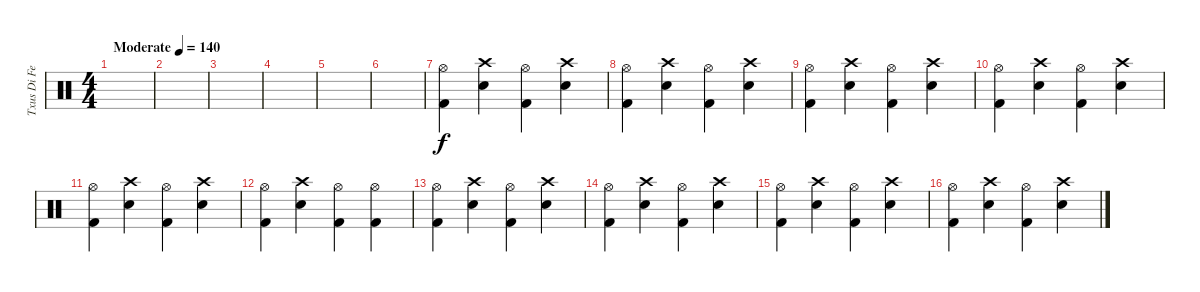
\track ("Txus Di Fellatio" "Txus Di Fe") {instrument percussion}
\staff {score}
\articulation defaults
\ts (4 4)
\tempo (140 "Moderate")
\clef neutral
\ks c
|
|
|
|
|
|
("Hi-Hat (open)" "Kick (hit) 2").4 ("Crash high (hit)" "Electric Snare (hit)").4 ("Hi-Hat (open)" "Kick (hit) 2").4 ("Crash high (hit)" "Electric Snare (hit)").4 |
("Hi-Hat (open)" "Kick (hit) 2").4 ("Crash high (hit)" "Electric Snare (hit)").4 ("Hi-Hat (open)" "Kick (hit) 2").4 ("Crash high (hit)" "Electric Snare (hit)").4 |
("Hi-Hat (open)" "Kick (hit) 2").4 ("Crash high (hit)" "Electric Snare (hit)").4 ("Hi-Hat (open)" "Kick (hit) 2").4 ("Crash high (hit)" "Electric Snare (hit)").4 |
("Hi-Hat (open)" "Kick (hit) 2").4 ("Crash high (hit)" "Electric Snare (hit)").4 ("Hi-Hat (open)" "Kick (hit) 2").4 ("Crash high (hit)" "Electric Snare (hit)").4 |
("Hi-Hat (open)" "Kick (hit) 2").4 ("Crash high (hit)" "Electric Snare (hit)").4 ("Hi-Hat (open)" "Kick (hit) 2").4 ("Crash high (hit)" "Electric Snare (hit)").4 |
("Hi-Hat (open)" "Kick (hit) 2").4 ("Crash high (hit)" "Electric Snare (hit)").4 ("Hi-Hat (open)" "Kick (hit) 2").4 ("Hi-Hat (open)" "Kick (hit) 2").4 |
("Hi-Hat (open)" "Kick (hit) 2").4 ("Crash high (hit)" "Electric Snare (hit)").4 ("Hi-Hat (open)" "Kick (hit) 2").4 ("Crash high (hit)" "Electric Snare (hit)").4 |
("Hi-Hat (open)" "Kick (hit) 2").4 ("Crash high (hit)" "Electric Snare (hit)").4 ("Hi-Hat (open)" "Kick (hit) 2").4 ("Crash high (hit)" "Electric Snare (hit)").4 |
("Hi-Hat (open)" "Kick (hit) 2").4 ("Crash high (hit)" "Electric Snare (hit)").4 ("Hi-Hat (open)" "Kick (hit) 2").4 ("Crash high (hit)" "Electric Snare (hit)").4 |
("Hi-Hat (open)" "Kick (hit) 2").4 ("Crash high (hit)" "Electric Snare (hit)").4 ("Hi-Hat (open)" "Kick (hit) 2").4 ("Crash high (hit)" "Electric Snare (hit)").4
